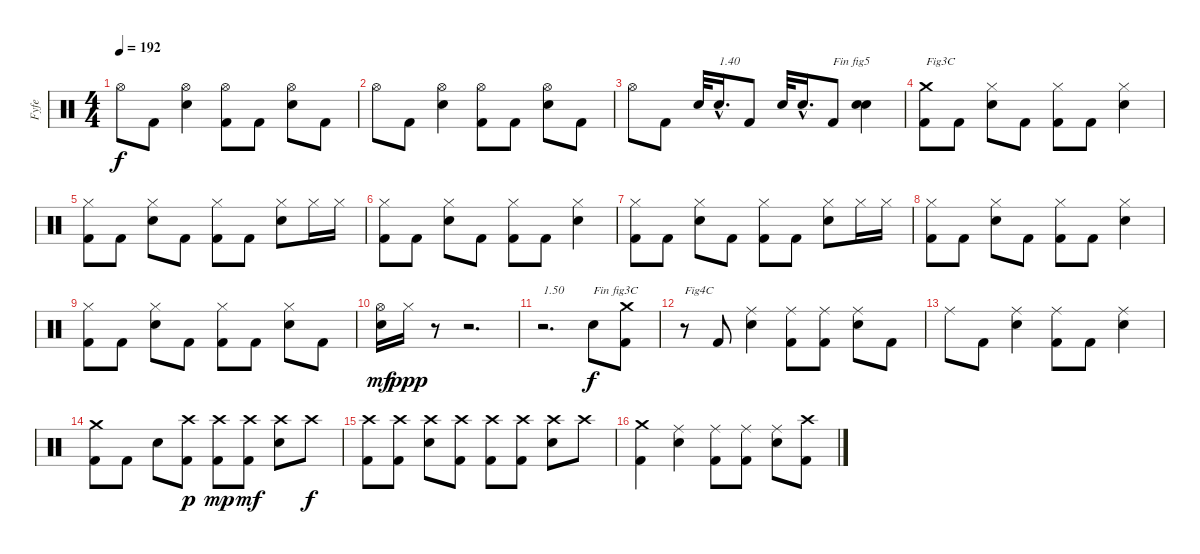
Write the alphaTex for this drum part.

\track ("Fyfe" "Fyfe") {instrument percussion}
\staff {score}
\articulation defaults
\ts (4 4)
\tempo 192
\clef neutral
\ks c "Hi-Hat (open)".8{dy f} "Kick (hit) 2".8
("Electric Snare (hit)" "Hi-Hat (open)").4 ("Kick (hit) 2" "Hi-Hat (open)").8 "Kick (hit) 2".8 ("Electric Snare (hit)" "Hi-Hat (open)").8 "Kick (hit) 2".8 |
"Hi-Hat (open)".8 "Kick (hit) 2".8 ("Electric Snare (hit)" "Hi-Hat (open)").4 ("Kick (hit) 2" "Hi-Hat (open)").8 "Kick (hit) 2".8 ("Electric Snare (hit)" "Hi-Hat (open)").8 "Kick (hit) 2".8 |
"Hi-Hat (open)".8 "Kick (hit) 2".8 "Electric Snare (hit)".32 "Electric Snare (hit)"{hac}.16{d txt "1.40"} "Kick (hit) 2".8 "Electric Snare (hit)".32 "Electric Snare (hit)"{hac}.16{d} "Kick (hit) 2".8{txt "Fin fig5"} ("Electric Snare (hit)" "Electric Snare (hit)").4 |
("Kick (hit) 2" "Crash medium (hit)").8{txt "Fig3C"} "Kick (hit) 2".8 ("Electric Snare (hit)" "Hi-Hat (closed)").8 "Kick (hit) 2".8 ("Kick (hit) 2" "Hi-Hat (closed)").8 "Kick (hit) 2".8 ("Electric Snare (hit)" "Hi-Hat (closed)").4 |
("Kick (hit) 2" "Hi-Hat (closed)").8 "Kick (hit) 2".8 ("Electric Snare (hit)" "Hi-Hat (closed)").8 "Kick (hit) 2".8 ("Kick (hit) 2" "Hi-Hat (closed)").8 "Kick (hit) 2".8 ("Electric Snare (hit)" "Hi-Hat (closed)").8 "Hi-Hat (closed)".16 "Hi-Hat (closed)".16 |
("Kick (hit) 2" "Hi-Hat (closed)").8 "Kick (hit) 2".8 ("Electric Snare (hit)" "Hi-Hat (closed)").8 "Kick (hit) 2".8 ("Kick (hit) 2" "Hi-Hat (closed)").8 "Kick (hit) 2".8 ("Electric Snare (hit)" "Hi-Hat (closed)").4 |
("Kick (hit) 2" "Hi-Hat (closed)").8 "Kick (hit) 2".8 ("Electric Snare (hit)" "Hi-Hat (closed)").8 "Kick (hit) 2".8 ("Kick (hit) 2" "Hi-Hat (closed)").8 "Kick (hit) 2".8 ("Electric Snare (hit)" "Hi-Hat (closed)").8 "Hi-Hat (closed)".16 "Hi-Hat (closed)".16 |
("Kick (hit) 2" "Hi-Hat (closed)").8 "Kick (hit) 2".8 ("Electric Snare (hit)" "Hi-Hat (closed)").8 "Kick (hit) 2".8 ("Kick (hit) 2" "Hi-Hat (closed)").8 "Kick (hit) 2".8 ("Electric Snare (hit)" "Hi-Hat (closed)").4 |
("Kick (hit) 2" "Hi-Hat (closed)").8 "Kick (hit) 2".8 ("Electric Snare (hit)" "Hi-Hat (closed)").8 "Kick (hit) 2".8 ("Kick (hit) 2" "Hi-Hat (closed)").8 "Kick (hit) 2".8 ("Electric Snare (hit)" "Hi-Hat (closed)").8 "Kick (hit) 2".8 |
("Electric Snare (hit)" "Hi-Hat (open)").16{dy mf} "Hi-Hat (closed)".16{dy ppp} r.8 r.2{d} |
r.2{d txt "1.50"} "Electric Snare (hit)".8{txt "Fin fig3C" dy f} ("Kick (hit) 2" "Crash medium (hit)").8 |
r.8{txt "Fig4C"} "Kick (hit) 2".8 ("Electric Snare (hit)" "Ride (middle)").4 ("Kick (hit) 2" "Ride (middle)").8 ("Kick (hit) 2" "Ride (middle)").8 ("Electric Snare (hit)" "Ride (middle)").8 "Kick (hit) 2".8 |
"Ride (middle)".8 "Kick (hit) 2".8 ("Electric Snare (hit)" "Ride (middle)").4 ("Kick (hit) 2" "Ride (middle)").8 "Kick (hit) 2".8 ("Electric Snare (hit)" "Ride (middle)").4 |
("Kick (hit) 2" "Crash medium (hit)").8 "Kick (hit) 2".8 "Electric Snare (hit)".8 ("Kick (hit) 2" "Crash high (hit)").8{dy p} ("Kick (hit) 2" "Crash high (hit)").8{dy mp} ("Kick (hit) 2" "Crash high (hit)").8{dy mf} ("Electric Snare (hit)" "Crash high (hit)").8 "Crash high (hit)".8{dy f} |
("Kick (hit) 2" "Crash high (hit)").8 ("Kick (hit) 2" "Crash high (hit)").8 ("Electric Snare (hit)" "Crash high (hit)").8 ("Kick (hit) 2" "Crash high (hit)").8 ("Kick (hit) 2" "Crash high (hit)").8 ("Kick (hit) 2" "Crash high (hit)").8 ("Electric Snare (hit)" "Crash high (hit)").8 "Crash high (hit)".8 |
("Kick (hit) 2" "Crash medium (hit)").4 ("Electric Snare (hit)" "Ride (middle)").4 ("Kick (hit) 2" "Ride (middle)").8 ("Kick (hit) 2" "Ride (middle)").8 ("Electric Snare (hit)" "Ride (middle)").8 ("Kick (hit) 2" "Crash high (hit)").8
